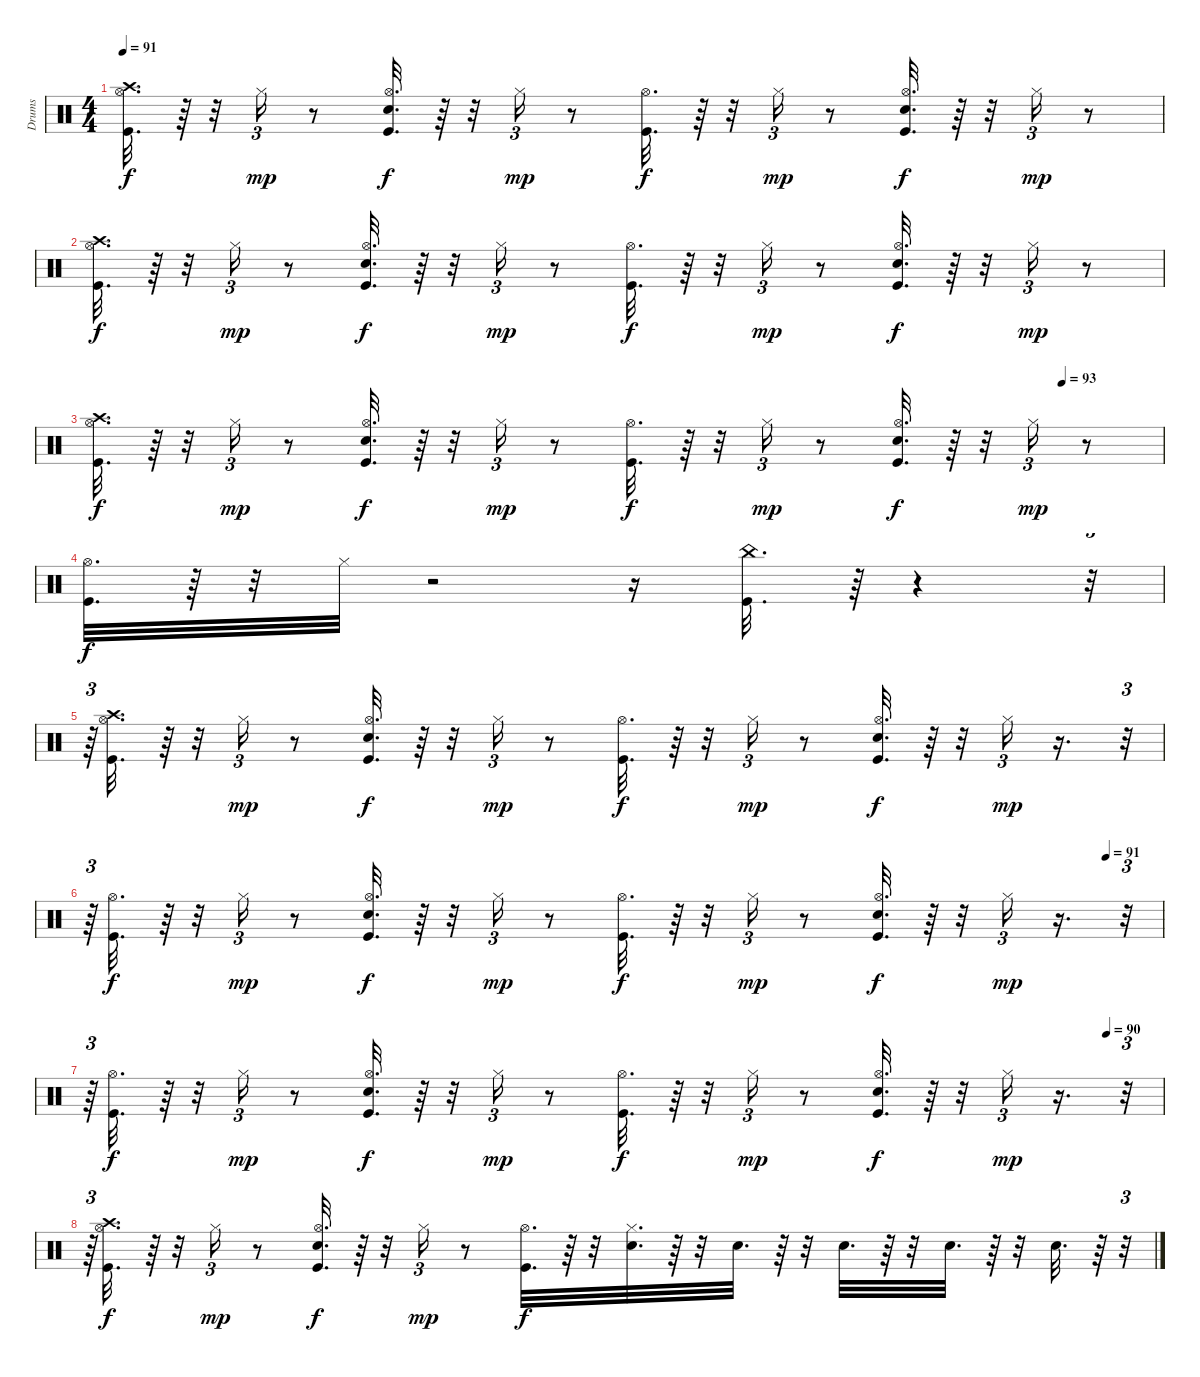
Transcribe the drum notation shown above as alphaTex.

\track ("Drums" "Drums") {instrument percussion}
\staff {score}
\articulation defaults
\ts (4 4)
\tempo 91
\clef neutral
\ks c
("Crash high (hit)" "Kick (hit)" "Hi-Hat (open)").32{d dy f} r.64 r.32 "Hi-Hat (closed)".16{tu (3 2) dy mp} r.8 ("Snare (hit) 2" "Kick (hit)" "Hi-Hat (open)").32{d dy f} r.64 r.32 "Hi-Hat (closed)".16{tu (3 2) dy mp} r.8 ("Kick (hit)" "Hi-Hat (open)").32{d dy f} r.64 r.32 "Hi-Hat (closed)".16{tu (3 2) dy mp} r.8 ("Snare (hit) 2" "Kick (hit)" "Hi-Hat (open)").32{d dy f} r.64 r.32 "Hi-Hat (closed)".16{tu (3 2) dy mp} r.8 |
("Hi-Hat (open)" "Crash high (hit)" "Kick (hit)").32{d dy f} r.64 r.32 "Hi-Hat (closed)".16{tu (3 2) dy mp} r.8 ("Hi-Hat (open)" "Snare (hit) 2" "Kick (hit)").32{d dy f} r.64 r.32 "Hi-Hat (closed)".16{tu (3 2) dy mp} r.8 ("Hi-Hat (open)" "Kick (hit)").32{d dy f} r.64 r.32 "Hi-Hat (closed)".16{tu (3 2) dy mp} r.8 ("Hi-Hat (open)" "Snare (hit) 2" "Kick (hit)").32{d dy f} r.64 r.32 "Hi-Hat (closed)".16{tu (3 2) dy mp} r.8 |
\tempo (93 0.90625)
("Crash high (hit)" "Kick (hit)" "Hi-Hat (open)").32{d dy f} r.64 r.32 "Hi-Hat (closed)".16{tu (3 2) dy mp} r.8 ("Snare (hit) 2" "Kick (hit)" "Hi-Hat (open)").32{d dy f} r.64 r.32 "Hi-Hat (closed)".16{tu (3 2) dy mp} r.8 ("Kick (hit)" "Hi-Hat (open)").32{d dy f} r.64 r.32 "Hi-Hat (closed)".16{tu (3 2) dy mp} r.8 ("Snare (hit) 2" "Kick (hit)" "Hi-Hat (open)").32{d dy f} r.64 r.32 "Hi-Hat (closed)".16{tu (3 2) dy mp} r.8 |
("Hi-Hat (open)" "Kick (hit)").32{d dy f} r.64 r.32 "Hi-Hat (closed)".32 r.2 r.16 ("China (hit)" "Kick (hit)").32{d} r.64 r.4 r.32{tu (3 2)} |
r.64{tu (3 2)} ("Crash high (hit)" "Kick (hit)" "Hi-Hat (open)").32{d} r.64 r.32 "Hi-Hat (closed)".16{tu (3 2) dy mp} r.8 ("Snare (hit) 2" "Kick (hit)" "Hi-Hat (open)").32{d dy f} r.64 r.32 "Hi-Hat (closed)".16{tu (3 2) dy mp} r.8 ("Kick (hit)" "Hi-Hat (open)").32{d dy f} r.64 r.32 "Hi-Hat (closed)".16{tu (3 2) dy mp} r.8 ("Snare (hit) 2" "Kick (hit)" "Hi-Hat (open)").32{d dy f} r.64 r.32 "Hi-Hat (closed)".16{tu (3 2) dy mp} r.16{d} r.32{tu (3 2)} |
\tempo (91 0.9479166666666666)
r.64{tu (3 2)} ("Hi-Hat (open)" "Kick (hit)").32{d dy f} r.64 r.32 "Hi-Hat (closed)".16{tu (3 2) dy mp} r.8 ("Hi-Hat (open)" "Snare (hit) 2" "Kick (hit)").32{d dy f} r.64 r.32 "Hi-Hat (closed)".16{tu (3 2) dy mp} r.8 ("Hi-Hat (open)" "Kick (hit)").32{d dy f} r.64 r.32 "Hi-Hat (closed)".16{tu (3 2) dy mp} r.8 ("Hi-Hat (open)" "Snare (hit) 2" "Kick (hit)").32{d dy f} r.64 r.32 "Hi-Hat (closed)".16{tu (3 2) dy mp} r.16{d} r.32{tu (3 2)} |
\tempo (90 0.9479166666666666)
r.64{tu (3 2)} ("Kick (hit)" "Hi-Hat (open)").32{d dy f} r.64 r.32 "Hi-Hat (closed)".16{tu (3 2) dy mp} r.8 ("Snare (hit) 2" "Kick (hit)" "Hi-Hat (open)").32{d dy f} r.64 r.32 "Hi-Hat (closed)".16{tu (3 2) dy mp} r.8 ("Kick (hit)" "Hi-Hat (open)").32{d dy f} r.64 r.32 "Hi-Hat (closed)".16{tu (3 2) dy mp} r.8 ("Snare (hit) 2" "Kick (hit)" "Hi-Hat (open)").32{d dy f} r.64 r.32 "Hi-Hat (closed)".16{tu (3 2) dy mp} r.16{d} r.32{tu (3 2)} |
r.64{tu (3 2)} ("Hi-Hat (open)" "Crash high (hit)" "Kick (hit)").32{d dy f} r.64 r.32 "Hi-Hat (closed)".16{tu (3 2) dy mp} r.8 ("Hi-Hat (open)" "Snare (hit) 2" "Kick (hit)").32{d dy f} r.64 r.32 "Hi-Hat (closed)".16{tu (3 2) dy mp} r.8 ("Hi-Hat (open)" "Kick (hit)").32{d dy f} r.64 r.32 ("Electric Snare (hit)" "Hi-Hat (closed)").32{d} r.64 r.32 "Electric Snare (hit)".32{d} r.64 r.32 "Electric Snare (hit)".32{d} r.64 r.32 "Electric Snare (hit)".32{d} r.64 r.32 "Electric Snare (hit)".32{d} r.64 r.32{tu (3 2)}
